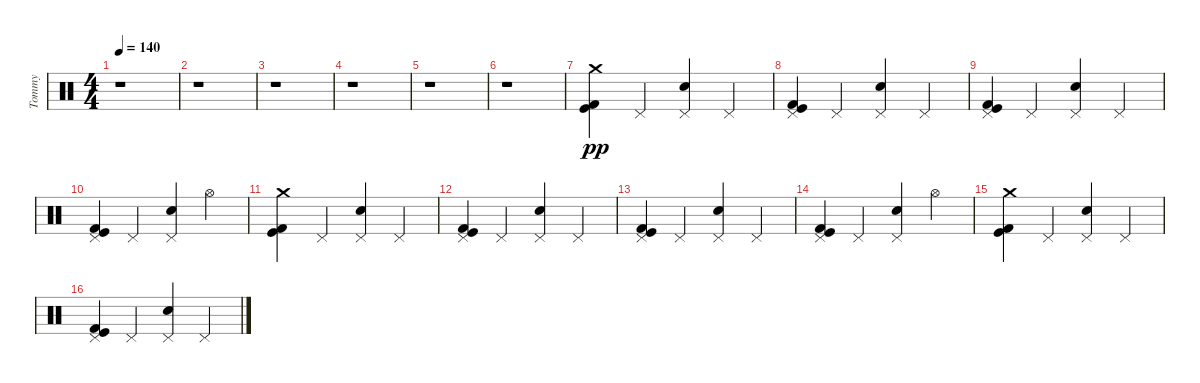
\track ("Tommy" "Tommy") {instrument percussion}
\staff {score}
\articulation defaults
\ts (4 4)
\tempo 140
\clef neutral
\ks c
r.1{dy pp} |
r.1 |
r.1 |
r.1 |
r.1 |
r.1 |
("Kick (hit) 2" "Kick (hit)" "Crash medium (hit)").4 "Pedal Hi-Hat (hit)".4 ("Pedal Hi-Hat (hit)" "Snare (hit) 2").4 "Pedal Hi-Hat (hit)".4 |
("Pedal Hi-Hat (hit)" "Kick (hit) 2" "Kick (hit)").4 "Pedal Hi-Hat (hit)".4 ("Pedal Hi-Hat (hit)" "Snare (hit) 2").4 "Pedal Hi-Hat (hit)".4 |
("Pedal Hi-Hat (hit)" "Kick (hit) 2" "Kick (hit)").4 "Pedal Hi-Hat (hit)".4 ("Pedal Hi-Hat (hit)" "Snare (hit) 2").4 "Pedal Hi-Hat (hit)".4 |
("Pedal Hi-Hat (hit)" "Kick (hit) 2" "Kick (hit)").4 "Pedal Hi-Hat (hit)".4 ("Pedal Hi-Hat (hit)" "Snare (hit) 2").4 "Hi-Hat (open)".4 |
("Kick (hit) 2" "Kick (hit)" "Crash medium (hit)").4 "Pedal Hi-Hat (hit)".4 ("Pedal Hi-Hat (hit)" "Snare (hit) 2").4 "Pedal Hi-Hat (hit)".4 |
("Pedal Hi-Hat (hit)" "Kick (hit) 2" "Kick (hit)").4 "Pedal Hi-Hat (hit)".4 ("Pedal Hi-Hat (hit)" "Snare (hit) 2").4 "Pedal Hi-Hat (hit)".4 |
("Pedal Hi-Hat (hit)" "Kick (hit) 2" "Kick (hit)").4 "Pedal Hi-Hat (hit)".4 ("Pedal Hi-Hat (hit)" "Snare (hit) 2").4 "Pedal Hi-Hat (hit)".4 |
("Pedal Hi-Hat (hit)" "Kick (hit) 2" "Kick (hit)").4 "Pedal Hi-Hat (hit)".4 ("Pedal Hi-Hat (hit)" "Snare (hit) 2").4 "Hi-Hat (open)".4 |
("Kick (hit) 2" "Kick (hit)" "Crash medium (hit)").4 "Pedal Hi-Hat (hit)".4 ("Pedal Hi-Hat (hit)" "Snare (hit) 2").4 "Pedal Hi-Hat (hit)".4 |
("Pedal Hi-Hat (hit)" "Kick (hit) 2" "Kick (hit)").4 "Pedal Hi-Hat (hit)".4 ("Pedal Hi-Hat (hit)" "Snare (hit) 2").4 "Pedal Hi-Hat (hit)".4
